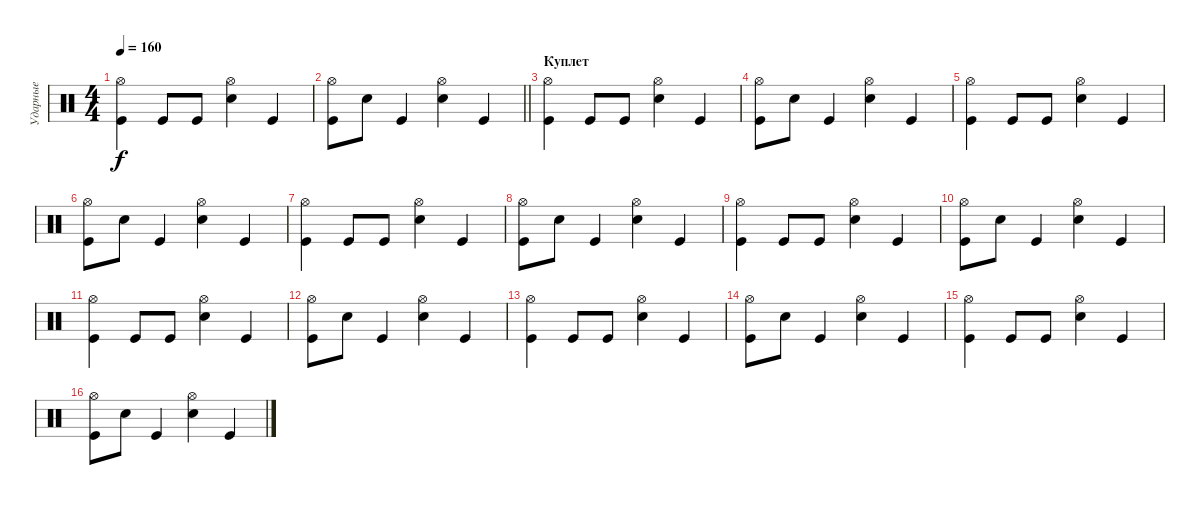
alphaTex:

\track ("Ударные" "Ударные") {instrument percussion}
\staff {score}
\articulation defaults
\ts (4 4)
\tempo 160
\clef neutral
\ks c
("Kick (hit)" "Hi-Hat (open)").4{dy f} "Kick (hit)".8 "Kick (hit)".8 ("Electric Snare (hit)" "Hi-Hat (open)").4 "Kick (hit)".4 |
\barLineRight lightlight
("Kick (hit)" "Hi-Hat (open)").8 "Electric Snare (hit)".8 "Kick (hit)".4 ("Electric Snare (hit)" "Hi-Hat (open)").4 "Kick (hit)".4 |
\section ("" "Куплет")
("Kick (hit)" "Hi-Hat (open)").4 "Kick (hit)".8 "Kick (hit)".8 ("Electric Snare (hit)" "Hi-Hat (open)").4 "Kick (hit)".4 |
("Kick (hit)" "Hi-Hat (open)").8 "Electric Snare (hit)".8 "Kick (hit)".4 ("Electric Snare (hit)" "Hi-Hat (open)").4 "Kick (hit)".4 |
("Kick (hit)" "Hi-Hat (open)").4 "Kick (hit)".8 "Kick (hit)".8 ("Electric Snare (hit)" "Hi-Hat (open)").4 "Kick (hit)".4 |
("Kick (hit)" "Hi-Hat (open)").8 "Electric Snare (hit)".8 "Kick (hit)".4 ("Electric Snare (hit)" "Hi-Hat (open)").4 "Kick (hit)".4 |
("Kick (hit)" "Hi-Hat (open)").4 "Kick (hit)".8 "Kick (hit)".8 ("Electric Snare (hit)" "Hi-Hat (open)").4 "Kick (hit)".4 |
("Kick (hit)" "Hi-Hat (open)").8 "Electric Snare (hit)".8 "Kick (hit)".4 ("Electric Snare (hit)" "Hi-Hat (open)").4 "Kick (hit)".4 |
("Kick (hit)" "Hi-Hat (open)").4 "Kick (hit)".8 "Kick (hit)".8 ("Electric Snare (hit)" "Hi-Hat (open)").4 "Kick (hit)".4 |
("Kick (hit)" "Hi-Hat (open)").8 "Electric Snare (hit)".8 "Kick (hit)".4 ("Electric Snare (hit)" "Hi-Hat (open)").4 "Kick (hit)".4 |
("Kick (hit)" "Hi-Hat (open)").4 "Kick (hit)".8 "Kick (hit)".8 ("Electric Snare (hit)" "Hi-Hat (open)").4 "Kick (hit)".4 |
("Kick (hit)" "Hi-Hat (open)").8 "Electric Snare (hit)".8 "Kick (hit)".4 ("Electric Snare (hit)" "Hi-Hat (open)").4 "Kick (hit)".4 |
("Kick (hit)" "Hi-Hat (open)").4 "Kick (hit)".8 "Kick (hit)".8 ("Electric Snare (hit)" "Hi-Hat (open)").4 "Kick (hit)".4 |
("Kick (hit)" "Hi-Hat (open)").8 "Electric Snare (hit)".8 "Kick (hit)".4 ("Electric Snare (hit)" "Hi-Hat (open)").4 "Kick (hit)".4 |
("Kick (hit)" "Hi-Hat (open)").4 "Kick (hit)".8 "Kick (hit)".8 ("Electric Snare (hit)" "Hi-Hat (open)").4 "Kick (hit)".4 |
("Kick (hit)" "Hi-Hat (open)").8 "Electric Snare (hit)".8 "Kick (hit)".4 ("Electric Snare (hit)" "Hi-Hat (open)").4 "Kick (hit)".4
